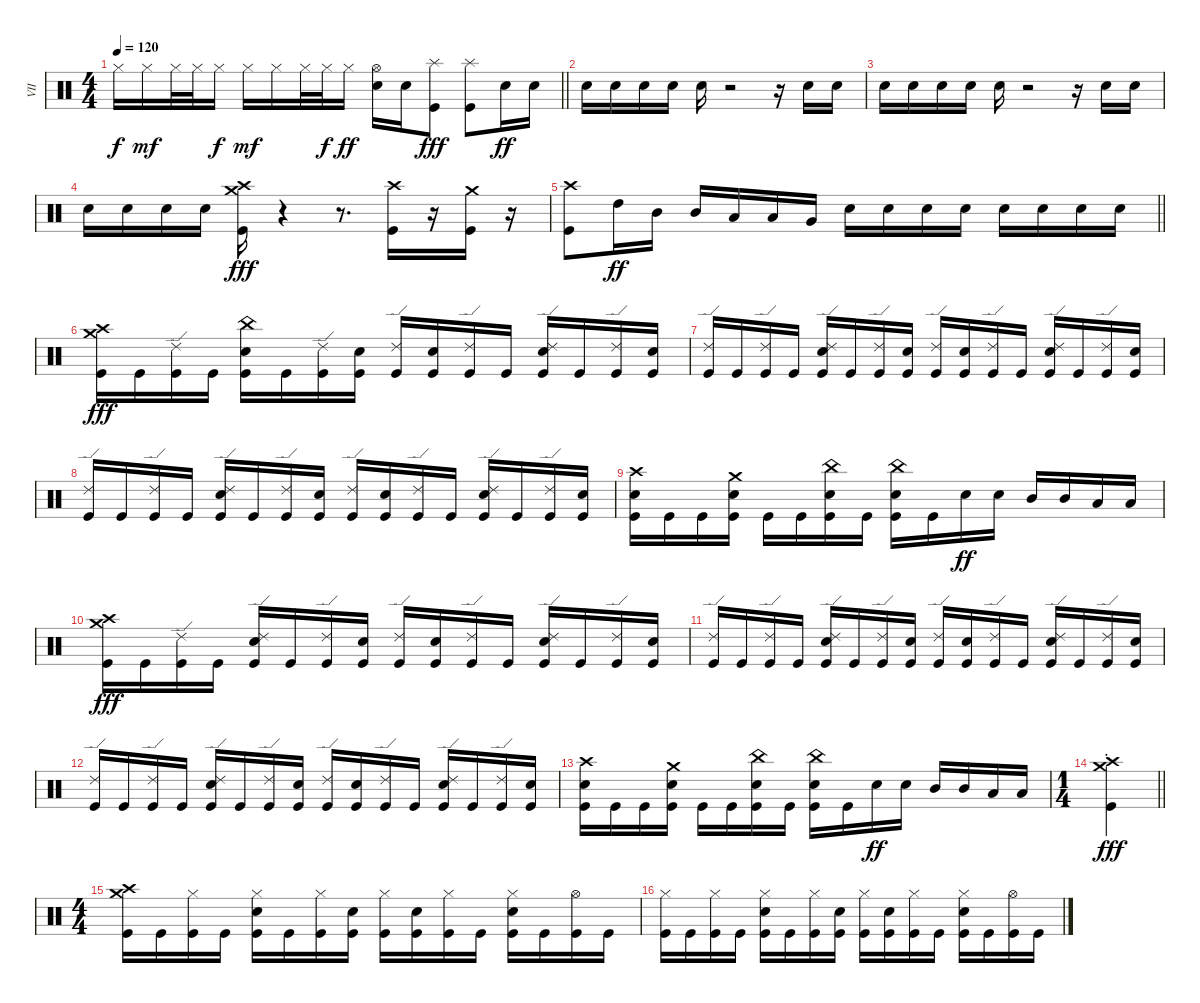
\track ("VII" "VII") {instrument percussion}
\staff {score}
\articulation defaults
\ts (4 4)
\tempo 120
\clef neutral
\barLineRight lightlight
\ks c "Hi-Hat (closed)".16{dy f} "Hi-Hat (closed)".16{dy mf} "Hi-Hat (closed)".32 "Hi-Hat (closed)".32 "Hi-Hat (closed)".16{dy f} "Hi-Hat (closed)".16{dy mf} "Hi-Hat (closed)".16 "Hi-Hat (closed)".32 "Hi-Hat (closed)".32{dy f} "Hi-Hat (closed)".16{dy ff}
("Hi-Hat (open)" "Snare (hit) 2").16 "Snare (hit) 2".16 ("Splash (hit)" "Kick (hit)").8{dy fff} ("Splash (hit)" "Kick (hit)").8 "Snare (hit) 2".16{dy ff} "Snare (hit) 2".16 |
"Snare (hit) 2".16 "Snare (hit) 2".16 "Snare (hit) 2".16 "Snare (hit) 2".16 "Snare (hit) 2".16 r.2 r.16 "Snare (hit) 2".16 "Snare (hit) 2".16 |
"Snare (hit) 2".16 "Snare (hit) 2".16 "Snare (hit) 2".16 "Snare (hit) 2".16 "Snare (hit) 2".16 r.2 r.16 "Snare (hit) 2".16 "Snare (hit) 2".16 |
"Snare (hit) 2".16 "Snare (hit) 2".16 "Snare (hit) 2".16 "Snare (hit) 2".16 ("Crash high (hit)" "Crash medium (hit)" "Kick (hit)").16{dy fff} r.4 r.8{d} ("Crash high (hit)" "Kick (hit)").16 r.16 ("Crash medium (hit)" "Kick (hit)").16 r.16 |
\barLineRight lightlight
("Crash high (hit)" "Kick (hit)").8 "High Tom (hit)".16{dy ff} "Mid Tom (hit)".16 "Mid Tom (hit)".16 "Low Tom (hit)".16 "Low Tom (hit)".16 "Very Low Tom (hit)".16 "Snare (hit) 2".16 "Snare (hit) 2".16 "Snare (hit) 2".16 "Snare (hit) 2".16 "Snare (hit) 2".16 "Snare (hit) 2".16 "Snare (hit) 2".16 "Snare (hit) 2".16 |
("Crash high (hit)" "Crash medium (hit)" "Kick (hit)").16{dy fff} "Kick (hit)".16 ("Ride (edge) 2" "Kick (hit)").16 "Kick (hit)".16 ("China (hit)" "Snare (hit) 2" "Kick (hit)").16 "Kick (hit)".16 ("Ride (edge) 2" "Kick (hit)").16 ("Snare (hit) 2" "Kick (hit)").16 ("Ride (edge) 2" "Kick (hit)").16 ("Snare (hit) 2" "Kick (hit)").16 ("Ride (edge) 2" "Kick (hit)").16 "Kick (hit)".16 ("Ride (edge) 2" "Snare (hit) 2" "Kick (hit)").16 "Kick (hit)".16 ("Ride (edge) 2" "Kick (hit)").16 ("Snare (hit) 2" "Kick (hit)").16 |
("Ride (edge) 2" "Kick (hit)").16 "Kick (hit)".16 ("Ride (edge) 2" "Kick (hit)").16 "Kick (hit)".16 ("Ride (edge) 2" "Snare (hit) 2" "Kick (hit)").16 "Kick (hit)".16 ("Ride (edge) 2" "Kick (hit)").16 ("Snare (hit) 2" "Kick (hit)").16 ("Ride (edge) 2" "Kick (hit)").16 ("Snare (hit) 2" "Kick (hit)").16 ("Ride (edge) 2" "Kick (hit)").16 "Kick (hit)".16 ("Ride (edge) 2" "Snare (hit) 2" "Kick (hit)").16 "Kick (hit)".16 ("Ride (edge) 2" "Kick (hit)").16 ("Snare (hit) 2" "Kick (hit)").16 |
("Ride (edge) 2" "Kick (hit)").16 "Kick (hit)".16 ("Ride (edge) 2" "Kick (hit)").16 "Kick (hit)".16 ("Ride (edge) 2" "Snare (hit) 2" "Kick (hit)").16 "Kick (hit)".16 ("Ride (edge) 2" "Kick (hit)").16 ("Snare (hit) 2" "Kick (hit)").16 ("Ride (edge) 2" "Kick (hit)").16 ("Snare (hit) 2" "Kick (hit)").16 ("Ride (edge) 2" "Kick (hit)").16 "Kick (hit)".16 ("Ride (edge) 2" "Snare (hit) 2" "Kick (hit)").16 "Kick (hit)".16 ("Ride (edge) 2" "Kick (hit)").16 ("Snare (hit) 2" "Kick (hit)").16 |
("Crash high (hit)" "Snare (hit) 2" "Kick (hit)").16 "Kick (hit)".16 "Kick (hit)".16 ("Crash medium (hit)" "Snare (hit) 2" "Kick (hit)").16 "Kick (hit)".16 "Kick (hit)".16 ("China (hit)" "Snare (hit) 2" "Kick (hit)").16 "Kick (hit)".16 ("China (hit)" "Snare (hit) 2" "Kick (hit)").16 "Kick (hit)".16 "Snare (hit) 2".16{dy ff} "Snare (hit) 2".16 "Mid Tom (hit)".16 "Mid Tom (hit)".16 "Low Tom (hit)".16 "Low Tom (hit)".16 |
("Crash high (hit)" "Crash medium (hit)" "Kick (hit)").16{dy fff} "Kick (hit)".16 ("Ride (edge) 2" "Kick (hit)").16 "Kick (hit)".16 ("Ride (edge) 2" "Snare (hit) 2" "Kick (hit)").16 "Kick (hit)".16 ("Ride (edge) 2" "Kick (hit)").16 ("Snare (hit) 2" "Kick (hit)").16 ("Ride (edge) 2" "Kick (hit)").16 ("Snare (hit) 2" "Kick (hit)").16 ("Ride (edge) 2" "Kick (hit)").16 "Kick (hit)".16 ("Ride (edge) 2" "Snare (hit) 2" "Kick (hit)").16 "Kick (hit)".16 ("Ride (edge) 2" "Kick (hit)").16 ("Snare (hit) 2" "Kick (hit)").16 |
("Ride (edge) 2" "Kick (hit)").16 "Kick (hit)".16 ("Ride (edge) 2" "Kick (hit)").16 "Kick (hit)".16 ("Ride (edge) 2" "Snare (hit) 2" "Kick (hit)").16 "Kick (hit)".16 ("Ride (edge) 2" "Kick (hit)").16 ("Snare (hit) 2" "Kick (hit)").16 ("Ride (edge) 2" "Kick (hit)").16 ("Snare (hit) 2" "Kick (hit)").16 ("Ride (edge) 2" "Kick (hit)").16 "Kick (hit)".16 ("Ride (edge) 2" "Snare (hit) 2" "Kick (hit)").16 "Kick (hit)".16 ("Ride (edge) 2" "Kick (hit)").16 ("Snare (hit) 2" "Kick (hit)").16 |
("Ride (edge) 2" "Kick (hit)").16 "Kick (hit)".16 ("Ride (edge) 2" "Kick (hit)").16 "Kick (hit)".16 ("Ride (edge) 2" "Snare (hit) 2" "Kick (hit)").16 "Kick (hit)".16 ("Ride (edge) 2" "Kick (hit)").16 ("Snare (hit) 2" "Kick (hit)").16 ("Ride (edge) 2" "Kick (hit)").16 ("Snare (hit) 2" "Kick (hit)").16 ("Ride (edge) 2" "Kick (hit)").16 "Kick (hit)".16 ("Ride (edge) 2" "Snare (hit) 2" "Kick (hit)").16 "Kick (hit)".16 ("Ride (edge) 2" "Kick (hit)").16 ("Snare (hit) 2" "Kick (hit)").16 |
("Crash high (hit)" "Snare (hit) 2" "Kick (hit)").16 "Kick (hit)".16 "Kick (hit)".16 ("Crash medium (hit)" "Snare (hit) 2" "Kick (hit)").16 "Kick (hit)".16 "Kick (hit)".16 ("China (hit)" "Snare (hit) 2" "Kick (hit)").16 "Kick (hit)".16 ("China (hit)" "Snare (hit) 2" "Kick (hit)").16 "Kick (hit)".16 "Snare (hit) 2".16{dy ff} "Snare (hit) 2".16 "Mid Tom (hit)".16 "Mid Tom (hit)".16 "Low Tom (hit)".16 "Low Tom (hit)".16 |
\ts (1 4)
\barLineRight lightlight
("Crash high (hit)"{st} "Crash medium (hit)"{st} "Kick (hit)"{st}).4{dy fff} |
\ts (4 4)
("Crash high (hit)" "Crash medium (hit)" "Kick (hit)").16 "Kick (hit)".16 ("Hi-Hat (closed)" "Kick (hit)").16 "Kick (hit)".16 ("Hi-Hat (closed)" "Snare (hit) 2" "Kick (hit)").16 "Kick (hit)".16 ("Hi-Hat (closed)" "Kick (hit)").16 ("Snare (hit) 2" "Kick (hit)").16 ("Hi-Hat (closed)" "Kick (hit)").16 ("Snare (hit) 2" "Kick (hit)").16 ("Hi-Hat (closed)" "Kick (hit)").16 "Kick (hit)".16 ("Hi-Hat (closed)" "Snare (hit) 2" "Kick (hit)").16 "Kick (hit)".16 ("Hi-Hat (open)" "Kick (hit)").16 "Kick (hit)".16 |
("Hi-Hat (closed)" "Kick (hit)").16 "Kick (hit)".16 ("Hi-Hat (closed)" "Kick (hit)").16 "Kick (hit)".16 ("Hi-Hat (closed)" "Snare (hit) 2" "Kick (hit)").16 "Kick (hit)".16 ("Hi-Hat (closed)" "Kick (hit)").16 ("Snare (hit) 2" "Kick (hit)").16 ("Hi-Hat (closed)" "Kick (hit)").16 ("Snare (hit) 2" "Kick (hit)").16 ("Hi-Hat (closed)" "Kick (hit)").16 "Kick (hit)".16 ("Hi-Hat (closed)" "Snare (hit) 2" "Kick (hit)").16 "Kick (hit)".16 ("Hi-Hat (open)" "Kick (hit)").16 "Kick (hit)".16
